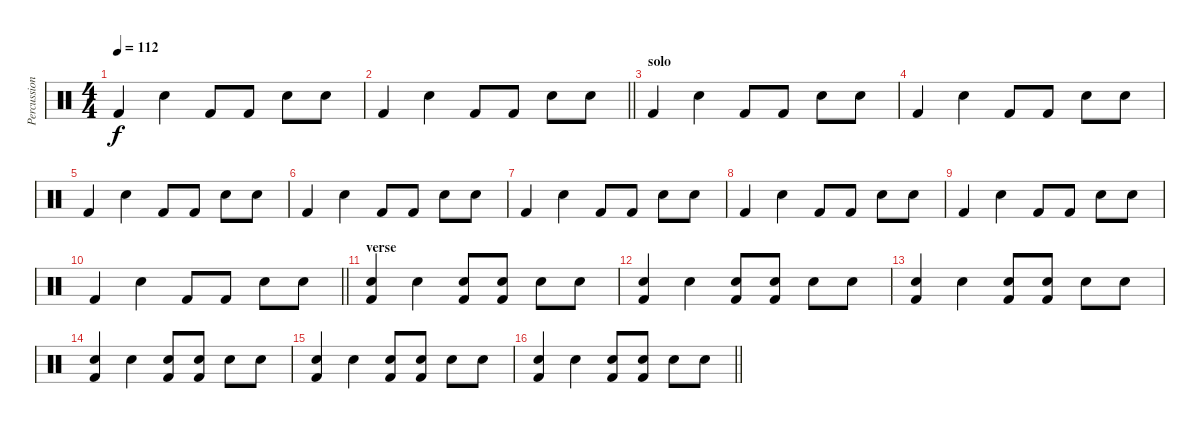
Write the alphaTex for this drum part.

\track ("Percussions" "Percussion") {instrument percussion}
\staff {score}
\articulation defaults
\ts (4 4)
\tempo 112
\clef neutral
\ks c "Kick (hit) 2".4{dy f} "Electric Snare (hit)".4 "Kick (hit) 2".8 "Kick (hit) 2".8 "Electric Snare (hit)".8 "Electric Snare (hit)".8
|
\barLineRight lightlight "Kick (hit) 2".4 "Electric Snare (hit)".4 "Kick (hit) 2".8 "Kick (hit) 2".8 "Electric Snare (hit)".8 "Electric Snare (hit)".8
|
\section ("" "solo")
"Kick (hit) 2".4 "Electric Snare (hit)".4 "Kick (hit) 2".8 "Kick (hit) 2".8 "Electric Snare (hit)".8 "Electric Snare (hit)".8 |
"Kick (hit) 2".4 "Electric Snare (hit)".4 "Kick (hit) 2".8 "Kick (hit) 2".8 "Electric Snare (hit)".8 "Electric Snare (hit)".8 |
"Kick (hit) 2".4 "Electric Snare (hit)".4 "Kick (hit) 2".8 "Kick (hit) 2".8 "Electric Snare (hit)".8 "Electric Snare (hit)".8 |
"Kick (hit) 2".4 "Electric Snare (hit)".4 "Kick (hit) 2".8 "Kick (hit) 2".8 "Electric Snare (hit)".8 "Electric Snare (hit)".8 |
"Kick (hit) 2".4 "Electric Snare (hit)".4 "Kick (hit) 2".8 "Kick (hit) 2".8 "Electric Snare (hit)".8 "Electric Snare (hit)".8 |
"Kick (hit) 2".4 "Electric Snare (hit)".4 "Kick (hit) 2".8 "Kick (hit) 2".8 "Electric Snare (hit)".8 "Electric Snare (hit)".8 |
"Kick (hit) 2".4 "Electric Snare (hit)".4 "Kick (hit) 2".8 "Kick (hit) 2".8 "Electric Snare (hit)".8 "Electric Snare (hit)".8 |
\barLineRight lightlight "Kick (hit) 2".4 "Electric Snare (hit)".4 "Kick (hit) 2".8 "Kick (hit) 2".8 "Electric Snare (hit)".8 "Electric Snare (hit)".8
|
\section ("" "verse")
("Snare (hit)" "Kick (hit) 2").4 "Electric Snare (hit)".4 ("Snare (hit)" "Kick (hit) 2").8 ("Snare (hit)" "Kick (hit) 2").8 "Electric Snare (hit)".8 "Electric Snare (hit)".8 |
("Snare (hit)" "Kick (hit) 2").4 "Electric Snare (hit)".4 ("Snare (hit)" "Kick (hit) 2").8 ("Snare (hit)" "Kick (hit) 2").8 "Electric Snare (hit)".8 "Electric Snare (hit)".8 |
("Snare (hit)" "Kick (hit) 2").4 "Electric Snare (hit)".4 ("Snare (hit)" "Kick (hit) 2").8 ("Snare (hit)" "Kick (hit) 2").8 "Electric Snare (hit)".8 "Electric Snare (hit)".8 |
("Snare (hit)" "Kick (hit) 2").4 "Electric Snare (hit)".4 ("Snare (hit)" "Kick (hit) 2").8 ("Snare (hit)" "Kick (hit) 2").8 "Electric Snare (hit)".8 "Electric Snare (hit)".8 |
("Snare (hit)" "Kick (hit) 2").4 "Electric Snare (hit)".4 ("Snare (hit)" "Kick (hit) 2").8 ("Snare (hit)" "Kick (hit) 2").8 "Electric Snare (hit)".8 "Electric Snare (hit)".8 |
\barLineRight lightlight
("Snare (hit)" "Kick (hit) 2").4 "Electric Snare (hit)".4 ("Snare (hit)" "Kick (hit) 2").8 ("Snare (hit)" "Kick (hit) 2").8 "Electric Snare (hit)".8 "Electric Snare (hit)".8
